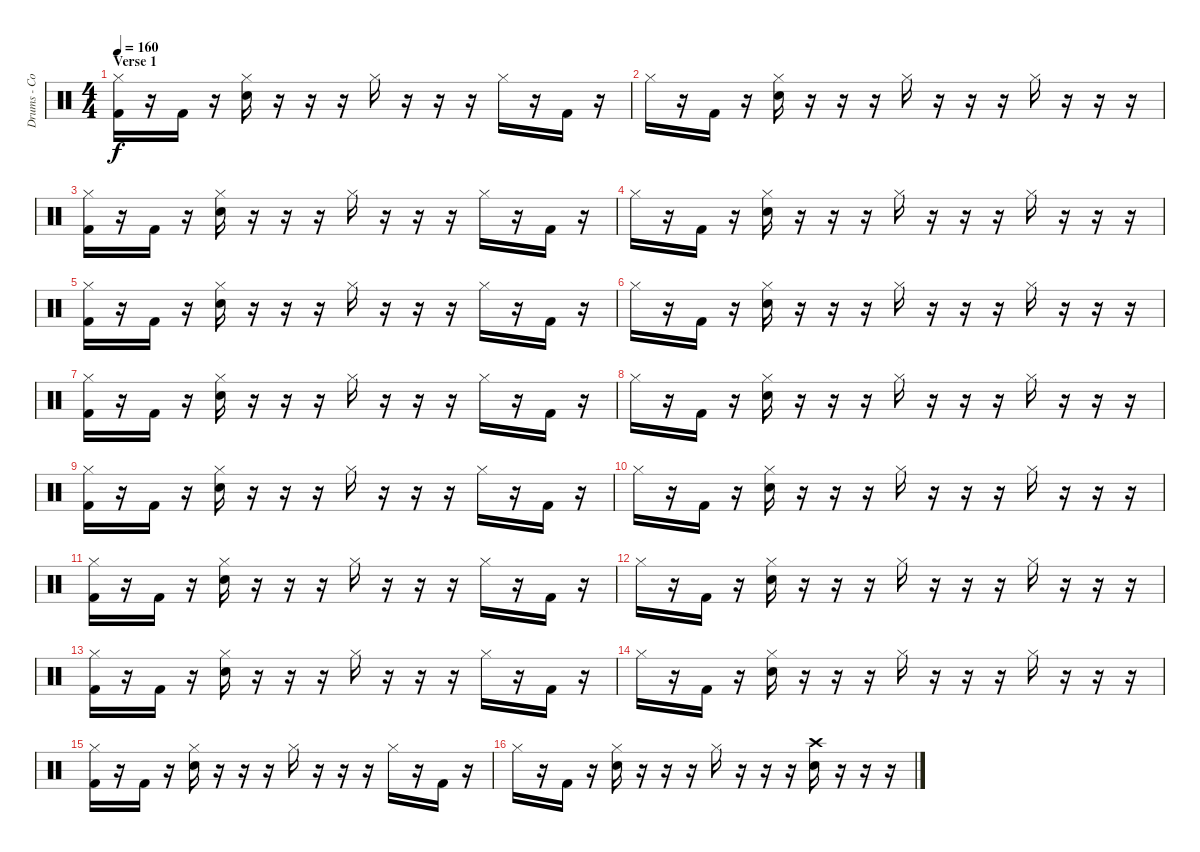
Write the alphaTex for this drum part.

\track ("Drums - Colby" "Drums - Co") {instrument percussion}
\staff {score}
\articulation defaults
\ts (4 4)
\section ("" "Verse 1")
\tempo 160
\clef neutral
\ks c
("Kick (hit) 2" "Hi-Hat (closed)").16{dy f} r.16 "Kick (hit) 2".16 r.16 ("Snare (hit) 2" "Hi-Hat (closed)").16 r.16 r.16 r.16 "Hi-Hat (closed)".16 r.16 r.16 r.16 "Hi-Hat (closed)".16 r.16 "Kick (hit) 2".16 r.16 |
"Hi-Hat (closed)".16 r.16 "Kick (hit) 2".16 r.16 ("Snare (hit) 2" "Hi-Hat (closed)").16 r.16 r.16 r.16 "Hi-Hat (closed)".16 r.16 r.16 r.16 "Hi-Hat (closed)".16 r.16 r.16 r.16 |
("Kick (hit) 2" "Hi-Hat (closed)").16 r.16 "Kick (hit) 2".16 r.16 ("Snare (hit) 2" "Hi-Hat (closed)").16 r.16 r.16 r.16 "Hi-Hat (closed)".16 r.16 r.16 r.16 "Hi-Hat (closed)".16 r.16 "Kick (hit) 2".16 r.16 |
"Hi-Hat (closed)".16 r.16 "Kick (hit) 2".16 r.16 ("Snare (hit) 2" "Hi-Hat (closed)").16 r.16 r.16 r.16 "Hi-Hat (closed)".16 r.16 r.16 r.16 "Hi-Hat (closed)".16 r.16 r.16 r.16 |
("Kick (hit) 2" "Hi-Hat (closed)").16 r.16 "Kick (hit) 2".16 r.16 ("Snare (hit) 2" "Hi-Hat (closed)").16 r.16 r.16 r.16 "Hi-Hat (closed)".16 r.16 r.16 r.16 "Hi-Hat (closed)".16 r.16 "Kick (hit) 2".16 r.16 |
"Hi-Hat (closed)".16 r.16 "Kick (hit) 2".16 r.16 ("Snare (hit) 2" "Hi-Hat (closed)").16 r.16 r.16 r.16 "Hi-Hat (closed)".16 r.16 r.16 r.16 "Hi-Hat (closed)".16 r.16 r.16 r.16 |
("Kick (hit) 2" "Hi-Hat (closed)").16 r.16 "Kick (hit) 2".16 r.16 ("Snare (hit) 2" "Hi-Hat (closed)").16 r.16 r.16 r.16 "Hi-Hat (closed)".16 r.16 r.16 r.16 "Hi-Hat (closed)".16 r.16 "Kick (hit) 2".16 r.16 |
"Hi-Hat (closed)".16 r.16 "Kick (hit) 2".16 r.16 ("Snare (hit) 2" "Hi-Hat (closed)").16 r.16 r.16 r.16 "Hi-Hat (closed)".16 r.16 r.16 r.16 "Hi-Hat (closed)".16 r.16 r.16 r.16 |
("Kick (hit) 2" "Hi-Hat (closed)").16 r.16 "Kick (hit) 2".16 r.16 ("Snare (hit) 2" "Hi-Hat (closed)").16 r.16 r.16 r.16 "Hi-Hat (closed)".16 r.16 r.16 r.16 "Hi-Hat (closed)".16 r.16 "Kick (hit) 2".16 r.16 |
"Hi-Hat (closed)".16 r.16 "Kick (hit) 2".16 r.16 ("Snare (hit) 2" "Hi-Hat (closed)").16 r.16 r.16 r.16 "Hi-Hat (closed)".16 r.16 r.16 r.16 "Hi-Hat (closed)".16 r.16 r.16 r.16 |
("Kick (hit) 2" "Hi-Hat (closed)").16 r.16 "Kick (hit) 2".16 r.16 ("Snare (hit) 2" "Hi-Hat (closed)").16 r.16 r.16 r.16 "Hi-Hat (closed)".16 r.16 r.16 r.16 "Hi-Hat (closed)".16 r.16 "Kick (hit) 2".16 r.16 |
"Hi-Hat (closed)".16 r.16 "Kick (hit) 2".16 r.16 ("Snare (hit) 2" "Hi-Hat (closed)").16 r.16 r.16 r.16 "Hi-Hat (closed)".16 r.16 r.16 r.16 "Hi-Hat (closed)".16 r.16 r.16 r.16 |
("Kick (hit) 2" "Hi-Hat (closed)").16 r.16 "Kick (hit) 2".16 r.16 ("Snare (hit) 2" "Hi-Hat (closed)").16 r.16 r.16 r.16 "Hi-Hat (closed)".16 r.16 r.16 r.16 "Hi-Hat (closed)".16 r.16 "Kick (hit) 2".16 r.16 |
"Hi-Hat (closed)".16 r.16 "Kick (hit) 2".16 r.16 ("Snare (hit) 2" "Hi-Hat (closed)").16 r.16 r.16 r.16 "Hi-Hat (closed)".16 r.16 r.16 r.16 "Hi-Hat (closed)".16 r.16 r.16 r.16 |
("Kick (hit) 2" "Hi-Hat (closed)").16 r.16 "Kick (hit) 2".16 r.16 ("Snare (hit) 2" "Hi-Hat (closed)").16 r.16 r.16 r.16 "Hi-Hat (closed)".16 r.16 r.16 r.16 "Hi-Hat (closed)".16 r.16 "Kick (hit) 2".16 r.16 |
"Hi-Hat (closed)".16 r.16 "Kick (hit) 2".16 r.16 ("Snare (hit) 2" "Hi-Hat (closed)").16 r.16 r.16 r.16 "Hi-Hat (closed)".16 r.16 r.16 r.16 ("Snare (hit) 2" "Crash high (hit)").16 r.16 r.16 r.16
